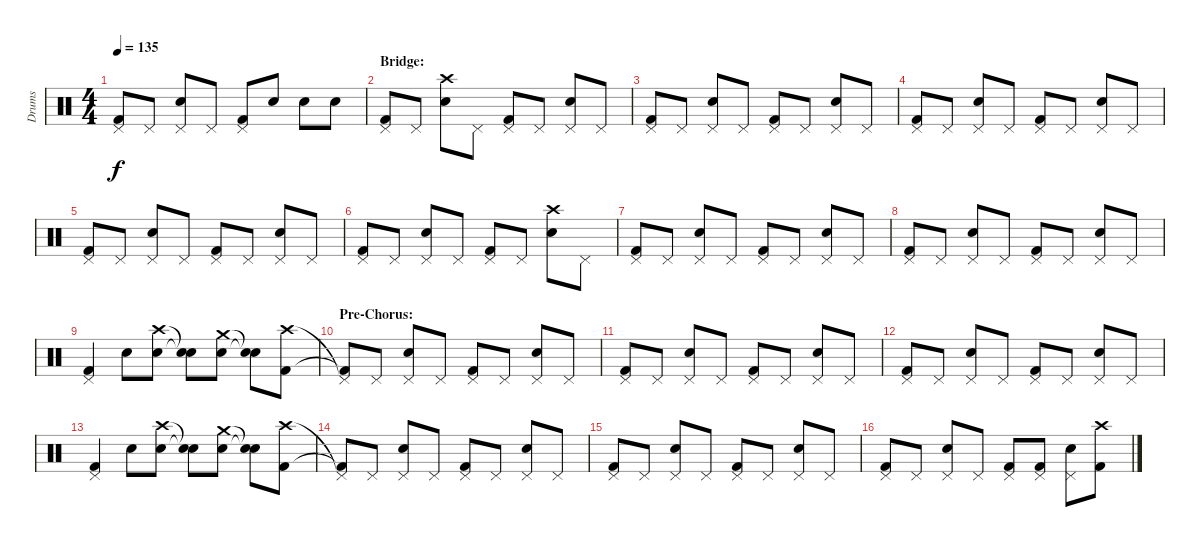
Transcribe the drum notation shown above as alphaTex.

\track ("Drums" "Drums") {instrument percussion}
\staff {score}
\articulation defaults
\ts (4 4)
\tempo 135
\clef neutral
\ks c
("Pedal Hi-Hat (hit)" "Kick (hit) 2").8{dy f} "Pedal Hi-Hat (hit)".8 ("Pedal Hi-Hat (hit)" "Snare (hit) 2").8 "Pedal Hi-Hat (hit)".8 ("Pedal Hi-Hat (hit)" "Kick (hit) 2").8 "Snare (hit) 2".8 "Snare (hit) 2".8 "Snare (hit) 2".8 |
\section ("" "Bridge:")
("Pedal Hi-Hat (hit)" "Kick (hit) 2").8 "Pedal Hi-Hat (hit)".8 ("Crash high (hit)" "Snare (hit) 2").8 "Pedal Hi-Hat (hit)".8 ("Pedal Hi-Hat (hit)" "Kick (hit) 2").8 "Pedal Hi-Hat (hit)".8 ("Pedal Hi-Hat (hit)" "Snare (hit) 2").8 "Pedal Hi-Hat (hit)".8 |
("Pedal Hi-Hat (hit)" "Kick (hit) 2").8 "Pedal Hi-Hat (hit)".8 ("Pedal Hi-Hat (hit)" "Snare (hit) 2").8 "Pedal Hi-Hat (hit)".8 ("Pedal Hi-Hat (hit)" "Kick (hit) 2").8 "Pedal Hi-Hat (hit)".8 ("Pedal Hi-Hat (hit)" "Snare (hit) 2").8 "Pedal Hi-Hat (hit)".8 |
("Pedal Hi-Hat (hit)" "Kick (hit) 2").8 "Pedal Hi-Hat (hit)".8 ("Pedal Hi-Hat (hit)" "Snare (hit) 2").8 "Pedal Hi-Hat (hit)".8 ("Pedal Hi-Hat (hit)" "Kick (hit) 2").8 "Pedal Hi-Hat (hit)".8 ("Pedal Hi-Hat (hit)" "Snare (hit) 2").8 "Pedal Hi-Hat (hit)".8 |
("Pedal Hi-Hat (hit)" "Kick (hit) 2").8 "Pedal Hi-Hat (hit)".8 ("Pedal Hi-Hat (hit)" "Snare (hit) 2").8 "Pedal Hi-Hat (hit)".8 ("Pedal Hi-Hat (hit)" "Kick (hit) 2").8 "Pedal Hi-Hat (hit)".8 ("Pedal Hi-Hat (hit)" "Snare (hit) 2").8 "Pedal Hi-Hat (hit)".8 |
("Pedal Hi-Hat (hit)" "Kick (hit) 2").8 "Pedal Hi-Hat (hit)".8 ("Pedal Hi-Hat (hit)" "Snare (hit) 2").8 "Pedal Hi-Hat (hit)".8 ("Pedal Hi-Hat (hit)" "Kick (hit) 2").8 "Pedal Hi-Hat (hit)".8 ("Crash high (hit)" "Snare (hit) 2").8 "Pedal Hi-Hat (hit)".8 |
("Pedal Hi-Hat (hit)" "Kick (hit) 2").8 "Pedal Hi-Hat (hit)".8 ("Pedal Hi-Hat (hit)" "Snare (hit) 2").8 "Pedal Hi-Hat (hit)".8 ("Pedal Hi-Hat (hit)" "Kick (hit) 2").8 "Pedal Hi-Hat (hit)".8 ("Pedal Hi-Hat (hit)" "Snare (hit) 2").8 "Pedal Hi-Hat (hit)".8 |
("Pedal Hi-Hat (hit)" "Kick (hit) 2").8 "Pedal Hi-Hat (hit)".8 ("Pedal Hi-Hat (hit)" "Snare (hit) 2").8 "Pedal Hi-Hat (hit)".8 ("Pedal Hi-Hat (hit)" "Kick (hit) 2").8 "Pedal Hi-Hat (hit)".8 ("Pedal Hi-Hat (hit)" "Snare (hit) 2").8 "Pedal Hi-Hat (hit)".8 |
("Pedal Hi-Hat (hit)" "Kick (hit) 2").4 "Snare (hit) 2".8 ("Crash high (hit)" "Snare (hit) 2").8 ("Snare (hit)"{t} "Snare (hit)"{t}).8 ("Crash medium (hit)" "Snare (hit) 2").8 ("Snare (hit)"{t} "Snare (hit)"{t}).8 ("Crash high (hit)" "Kick (hit) 2").8 |
\section ("" "Pre-Chorus:")
("Pedal Hi-Hat (hit)"{t} "Kick (hit) 2"{t}).8 "Pedal Hi-Hat (hit)".8 ("Pedal Hi-Hat (hit)" "Snare (hit) 2").8 "Pedal Hi-Hat (hit)".8 ("Pedal Hi-Hat (hit)" "Kick (hit) 2").8 "Pedal Hi-Hat (hit)".8 ("Pedal Hi-Hat (hit)" "Snare (hit) 2").8 "Pedal Hi-Hat (hit)".8 |
("Pedal Hi-Hat (hit)" "Kick (hit) 2").8 "Pedal Hi-Hat (hit)".8 ("Pedal Hi-Hat (hit)" "Snare (hit) 2").8 "Pedal Hi-Hat (hit)".8 ("Pedal Hi-Hat (hit)" "Kick (hit) 2").8 "Pedal Hi-Hat (hit)".8 ("Pedal Hi-Hat (hit)" "Snare (hit) 2").8 "Pedal Hi-Hat (hit)".8 |
("Pedal Hi-Hat (hit)" "Kick (hit) 2").8 "Pedal Hi-Hat (hit)".8 ("Pedal Hi-Hat (hit)" "Snare (hit) 2").8 "Pedal Hi-Hat (hit)".8 ("Pedal Hi-Hat (hit)" "Kick (hit) 2").8 "Pedal Hi-Hat (hit)".8 ("Pedal Hi-Hat (hit)" "Snare (hit) 2").8 "Pedal Hi-Hat (hit)".8 |
("Pedal Hi-Hat (hit)" "Kick (hit) 2").4 "Snare (hit) 2".8 ("Crash high (hit)" "Snare (hit) 2").8 ("Snare (hit)"{t} "Snare (hit)"{t}).8 ("Crash medium (hit)" "Snare (hit) 2").8 ("Snare (hit)"{t} "Snare (hit)"{t}).8 ("Crash high (hit)" "Kick (hit) 2").8 |
("Pedal Hi-Hat (hit)"{t} "Kick (hit) 2"{t}).8 "Pedal Hi-Hat (hit)".8 ("Pedal Hi-Hat (hit)" "Snare (hit) 2").8 "Pedal Hi-Hat (hit)".8 ("Pedal Hi-Hat (hit)" "Kick (hit) 2").8 "Pedal Hi-Hat (hit)".8 ("Pedal Hi-Hat (hit)" "Snare (hit) 2").8 "Pedal Hi-Hat (hit)".8 |
("Pedal Hi-Hat (hit)" "Kick (hit) 2").8 "Pedal Hi-Hat (hit)".8 ("Pedal Hi-Hat (hit)" "Snare (hit) 2").8 "Pedal Hi-Hat (hit)".8 ("Pedal Hi-Hat (hit)" "Kick (hit) 2").8 "Pedal Hi-Hat (hit)".8 ("Pedal Hi-Hat (hit)" "Snare (hit) 2").8 "Pedal Hi-Hat (hit)".8 |
("Pedal Hi-Hat (hit)" "Kick (hit) 2").8 "Pedal Hi-Hat (hit)".8 ("Pedal Hi-Hat (hit)" "Snare (hit) 2").8 "Pedal Hi-Hat (hit)".8 ("Pedal Hi-Hat (hit)" "Kick (hit) 2").8 ("Pedal Hi-Hat (hit)" "Kick (hit) 2").8 ("Pedal Hi-Hat (hit)" "Snare (hit) 2").8 ("Crash high (hit)" "Kick (hit) 2").8
